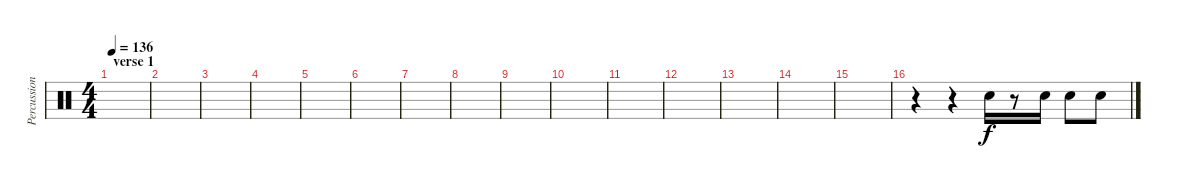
\track ("Percussion" "Percussion") {instrument percussion}
\staff {score}
\articulation defaults
\ts (4 4)
\section ("" "verse 1")
\tempo 136
\clef neutral
\ks c
|
|
|
|
|
|
|
|
|
|
|
|
|
|
|
r.4 r.4 "Electric Snare (hit)".16 r.8 "Electric Snare (hit)".16 "Electric Snare (hit)".8 "Electric Snare (hit)".8
